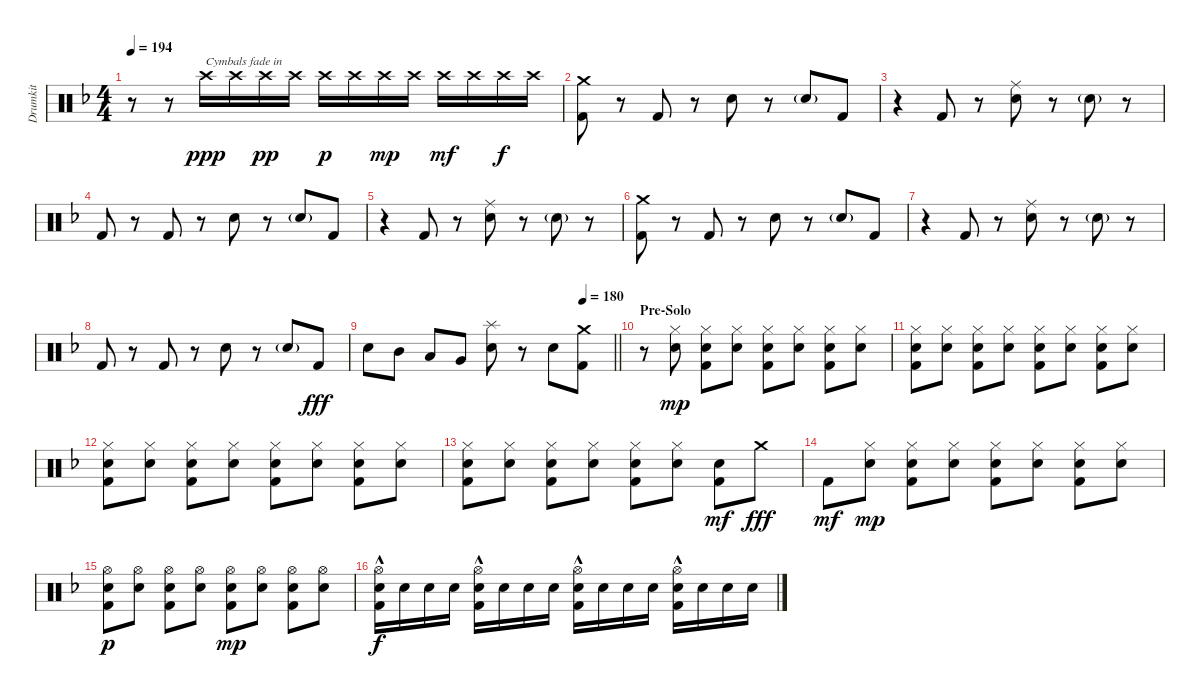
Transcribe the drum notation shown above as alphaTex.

\track ("Drumkit" "Drumkit") {instrument percussion}
\staff {score}
\articulation defaults
\ts (4 4)
\tempo 194
\clef neutral
\ks f
r.8{dy f} r.8 "Crash high (hit)".16{txt "Cymbals fade in" dy ppp} "Crash high (hit)".16 "Crash high (hit)".16{dy pp} "Crash high (hit)".16 "Crash high (hit)".16{dy p} "Crash high (hit)".16 "Crash high (hit)".16{dy mp} "Crash high (hit)".16 "Crash high (hit)".16{dy mf} "Crash high (hit)".16 "Crash high (hit)".16{dy f} "Crash high (hit)".16 |
("Crash medium (hit)" "Kick (hit) 2").8 r.8 "Kick (hit) 2".8 r.8 "Snare (hit) 2".8 r.8 "Snare (hit) 2"{g}.8 "Kick (hit) 2".8 |
r.4 "Kick (hit) 2".8 r.8 ("Ride (middle)" "Snare (hit) 2").8 r.8 "Snare (hit) 2"{g}.8 r.8 |
"Kick (hit) 2".8 r.8 "Kick (hit) 2".8 r.8 "Snare (hit) 2".8 r.8 "Snare (hit) 2"{g}.8 "Kick (hit) 2".8 |
r.4 "Kick (hit) 2".8 r.8 ("Ride (middle)" "Snare (hit) 2").8 r.8 "Snare (hit) 2"{g}.8 r.8 |
("Crash medium (hit)" "Kick (hit) 2").8 r.8 "Kick (hit) 2".8 r.8 "Snare (hit) 2".8 r.8 "Snare (hit) 2"{g}.8 "Kick (hit) 2".8 |
r.4 "Kick (hit) 2".8 r.8 ("Ride (middle)" "Snare (hit) 2").8 r.8 "Snare (hit) 2"{g}.8 r.8 |
"Kick (hit) 2".8 r.8 "Kick (hit) 2".8 r.8 "Snare (hit) 2".8 r.8 "Snare (hit) 2"{g}.8 "Kick (hit) 2".8{dy fff} |
\tempo (180 0.875)
\barLineRight lightlight "Snare (hit) 2".8 "Mid Tom (hit)".8 "Low Tom (hit)".8 "Very Low Tom (hit)".8
("Splash (hit)" "Snare (hit) 2").8 r.8 "Snare (hit) 2".8 ("Crash medium (hit)" "Kick (hit) 2").8 |
\section ("" "Pre-Solo")
r.8 ("Hi-Hat (closed)" "Snare (hit) 2").8{dy mp} ("Hi-Hat (closed)" "Snare (hit) 2" "Kick (hit) 2").8 ("Hi-Hat (closed)" "Snare (hit) 2").8 ("Hi-Hat (closed)" "Snare (hit) 2" "Kick (hit) 2").8 ("Hi-Hat (closed)" "Snare (hit) 2").8 ("Hi-Hat (closed)" "Snare (hit) 2" "Kick (hit) 2").8 ("Hi-Hat (closed)" "Snare (hit) 2").8 |
("Hi-Hat (closed)" "Snare (hit) 2" "Kick (hit) 2").8 ("Hi-Hat (closed)" "Snare (hit) 2").8 ("Hi-Hat (closed)" "Snare (hit) 2" "Kick (hit) 2").8 ("Hi-Hat (closed)" "Snare (hit) 2").8 ("Hi-Hat (closed)" "Snare (hit) 2" "Kick (hit) 2").8 ("Hi-Hat (closed)" "Snare (hit) 2").8 ("Hi-Hat (closed)" "Snare (hit) 2" "Kick (hit) 2").8 ("Hi-Hat (closed)" "Snare (hit) 2").8 |
("Hi-Hat (closed)" "Snare (hit) 2" "Kick (hit) 2").8 ("Hi-Hat (closed)" "Snare (hit) 2").8 ("Hi-Hat (closed)" "Snare (hit) 2" "Kick (hit) 2").8 ("Hi-Hat (closed)" "Snare (hit) 2").8 ("Hi-Hat (closed)" "Snare (hit) 2" "Kick (hit) 2").8 ("Hi-Hat (closed)" "Snare (hit) 2").8 ("Hi-Hat (closed)" "Snare (hit) 2" "Kick (hit) 2").8 ("Hi-Hat (closed)" "Snare (hit) 2").8 |
("Hi-Hat (closed)" "Snare (hit) 2" "Kick (hit) 2").8 ("Hi-Hat (closed)" "Snare (hit) 2").8 ("Hi-Hat (closed)" "Snare (hit) 2" "Kick (hit) 2").8 ("Hi-Hat (closed)" "Snare (hit) 2").8 ("Hi-Hat (closed)" "Snare (hit) 2" "Kick (hit) 2").8 ("Hi-Hat (closed)" "Snare (hit) 2").8 ("Snare (hit) 2" "Kick (hit) 2").8{dy mf} "Crash medium (hit)".8{dy fff} |
"Kick (hit) 2".8{dy mf} ("Hi-Hat (closed)" "Snare (hit) 2").8{dy mp} ("Hi-Hat (closed)" "Snare (hit) 2" "Kick (hit) 2").8 ("Hi-Hat (closed)" "Snare (hit) 2").8 ("Hi-Hat (closed)" "Snare (hit) 2" "Kick (hit) 2").8 ("Hi-Hat (closed)" "Snare (hit) 2").8 ("Hi-Hat (closed)" "Snare (hit) 2" "Kick (hit) 2").8 ("Hi-Hat (closed)" "Snare (hit) 2").8 |
("Hi-Hat (open)" "Snare (hit) 2" "Kick (hit) 2").8{dy p} ("Hi-Hat (open)" "Snare (hit) 2").8 ("Hi-Hat (open)" "Snare (hit) 2" "Kick (hit) 2").8 ("Hi-Hat (open)" "Snare (hit) 2").8 ("Hi-Hat (open)" "Snare (hit) 2" "Kick (hit) 2").8{dy mp} ("Hi-Hat (open)" "Snare (hit) 2").8 ("Hi-Hat (open)" "Snare (hit) 2" "Kick (hit) 2").8 ("Hi-Hat (open)" "Snare (hit) 2").8 |
("Hi-Hat (open)" "Snare (hit) 2"{hac} "Kick (hit) 2").16{dy f} "Snare (hit) 2".16 "Snare (hit) 2".16 "Snare (hit) 2".16 ("Hi-Hat (open)" "Snare (hit) 2"{hac} "Kick (hit) 2").16 "Snare (hit) 2".16 "Snare (hit) 2".16 "Snare (hit) 2".16 ("Hi-Hat (open)" "Snare (hit) 2"{hac} "Kick (hit) 2").16 "Snare (hit) 2".16 "Snare (hit) 2".16 "Snare (hit) 2".16 ("Hi-Hat (open)" "Snare (hit) 2"{hac} "Kick (hit) 2").16 "Snare (hit) 2".16 "Snare (hit) 2".16 "Snare (hit) 2".16
